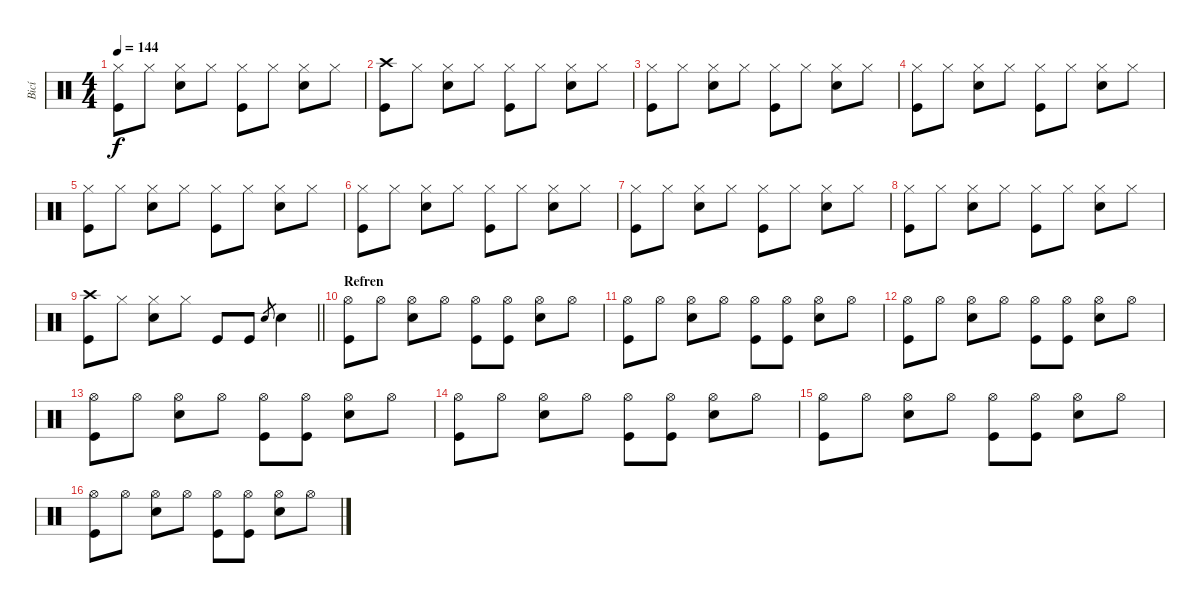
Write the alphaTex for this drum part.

\track ("Bicí" "Bicí") {instrument percussion}
\staff
\articulation defaults
\ts (4 4)
\tempo 144
\clef neutral
\ks c
("Hi-Hat (closed)" "Kick (hit)").8{dy f} "Hi-Hat (closed)".8 ("Hi-Hat (closed)" "Electric Snare (hit)").8 "Hi-Hat (closed)".8 ("Hi-Hat (closed)" "Kick (hit)").8 "Hi-Hat (closed)".8 ("Hi-Hat (closed)" "Electric Snare (hit)").8 "Hi-Hat (closed)".8 |
("Crash high (hit)" "Kick (hit)").8 "Hi-Hat (closed)".8 ("Hi-Hat (closed)" "Electric Snare (hit)").8 "Hi-Hat (closed)".8 ("Hi-Hat (closed)" "Kick (hit)").8 "Hi-Hat (closed)".8 ("Hi-Hat (closed)" "Electric Snare (hit)").8 "Hi-Hat (closed)".8 |
("Hi-Hat (closed)" "Kick (hit)").8 "Hi-Hat (closed)".8 ("Hi-Hat (closed)" "Electric Snare (hit)").8 "Hi-Hat (closed)".8 ("Hi-Hat (closed)" "Kick (hit)").8 "Hi-Hat (closed)".8 ("Hi-Hat (closed)" "Electric Snare (hit)").8 "Hi-Hat (closed)".8 |
("Hi-Hat (closed)" "Kick (hit)").8 "Hi-Hat (closed)".8 ("Hi-Hat (closed)" "Electric Snare (hit)").8 "Hi-Hat (closed)".8 ("Hi-Hat (closed)" "Kick (hit)").8 "Hi-Hat (closed)".8 ("Hi-Hat (closed)" "Electric Snare (hit)").8 "Hi-Hat (closed)".8 |
("Hi-Hat (closed)" "Kick (hit)").8 "Hi-Hat (closed)".8 ("Hi-Hat (closed)" "Electric Snare (hit)").8 "Hi-Hat (closed)".8 ("Hi-Hat (closed)" "Kick (hit)").8 "Hi-Hat (closed)".8 ("Hi-Hat (closed)" "Electric Snare (hit)").8 "Hi-Hat (closed)".8 |
("Hi-Hat (closed)" "Kick (hit)").8 "Hi-Hat (closed)".8 ("Hi-Hat (closed)" "Electric Snare (hit)").8 "Hi-Hat (closed)".8 ("Hi-Hat (closed)" "Kick (hit)").8 "Hi-Hat (closed)".8 ("Hi-Hat (closed)" "Electric Snare (hit)").8 "Hi-Hat (closed)".8 |
("Hi-Hat (closed)" "Kick (hit)").8 "Hi-Hat (closed)".8 ("Hi-Hat (closed)" "Electric Snare (hit)").8 "Hi-Hat (closed)".8 ("Hi-Hat (closed)" "Kick (hit)").8 "Hi-Hat (closed)".8 ("Hi-Hat (closed)" "Electric Snare (hit)").8 "Hi-Hat (closed)".8 |
("Hi-Hat (closed)" "Kick (hit)").8 "Hi-Hat (closed)".8 ("Hi-Hat (closed)" "Electric Snare (hit)").8 "Hi-Hat (closed)".8 ("Hi-Hat (closed)" "Kick (hit)").8 "Hi-Hat (closed)".8 ("Hi-Hat (closed)" "Electric Snare (hit)").8 "Hi-Hat (closed)".8 |
\barLineRight lightlight
("Crash high (hit)" "Kick (hit)").8 "Hi-Hat (closed)".8 ("Hi-Hat (closed)" "Electric Snare (hit)").8 "Hi-Hat (closed)".8 "Kick (hit)".8 "Kick (hit)".8 "Electric Snare (hit)".8{gr} "Electric Snare (hit)".4 |
\section ("" "Refren")
("Hi-Hat (open)" "Kick (hit)").8 "Hi-Hat (open)".8 ("Hi-Hat (open)" "Electric Snare (hit)").8 "Hi-Hat (open)".8 ("Hi-Hat (open)" "Kick (hit)").8 ("Hi-Hat (open)" "Kick (hit)").8 ("Hi-Hat (open)" "Electric Snare (hit)").8 "Hi-Hat (open)".8 |
("Hi-Hat (open)" "Kick (hit)").8 "Hi-Hat (open)".8 ("Hi-Hat (open)" "Electric Snare (hit)").8 "Hi-Hat (open)".8 ("Hi-Hat (open)" "Kick (hit)").8 ("Hi-Hat (open)" "Kick (hit)").8 ("Hi-Hat (open)" "Electric Snare (hit)").8 "Hi-Hat (open)".8 |
("Hi-Hat (open)" "Kick (hit)").8 "Hi-Hat (open)".8 ("Hi-Hat (open)" "Electric Snare (hit)").8 "Hi-Hat (open)".8 ("Hi-Hat (open)" "Kick (hit)").8 ("Hi-Hat (open)" "Kick (hit)").8 ("Hi-Hat (open)" "Electric Snare (hit)").8 "Hi-Hat (open)".8 |
("Hi-Hat (open)" "Kick (hit)").8 "Hi-Hat (open)".8 ("Hi-Hat (open)" "Electric Snare (hit)").8 "Hi-Hat (open)".8 ("Hi-Hat (open)" "Kick (hit)").8 ("Hi-Hat (open)" "Kick (hit)").8 ("Hi-Hat (open)" "Electric Snare (hit)").8 "Hi-Hat (open)".8 |
("Hi-Hat (open)" "Kick (hit)").8 "Hi-Hat (open)".8 ("Hi-Hat (open)" "Electric Snare (hit)").8 "Hi-Hat (open)".8 ("Hi-Hat (open)" "Kick (hit)").8 ("Hi-Hat (open)" "Kick (hit)").8 ("Hi-Hat (open)" "Electric Snare (hit)").8 "Hi-Hat (open)".8 |
("Hi-Hat (open)" "Kick (hit)").8 "Hi-Hat (open)".8 ("Hi-Hat (open)" "Electric Snare (hit)").8 "Hi-Hat (open)".8 ("Hi-Hat (open)" "Kick (hit)").8 ("Hi-Hat (open)" "Kick (hit)").8 ("Hi-Hat (open)" "Electric Snare (hit)").8 "Hi-Hat (open)".8 |
("Hi-Hat (open)" "Kick (hit)").8 "Hi-Hat (open)".8 ("Hi-Hat (open)" "Electric Snare (hit)").8 "Hi-Hat (open)".8 ("Hi-Hat (open)" "Kick (hit)").8 ("Hi-Hat (open)" "Kick (hit)").8 ("Hi-Hat (open)" "Electric Snare (hit)").8 "Hi-Hat (open)".8
